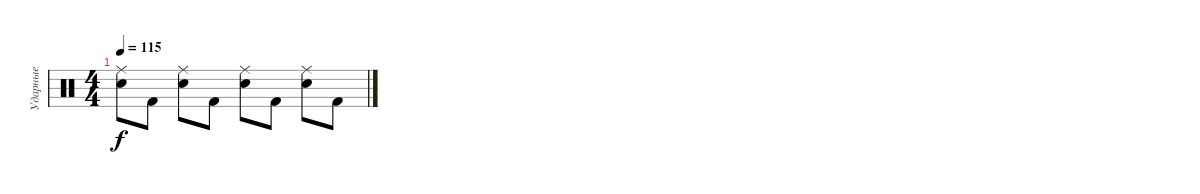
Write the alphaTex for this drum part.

\track ("Ударные" "Ударные") {instrument percussion}
\staff {score}
\articulation defaults
\ts (4 4)
\tempo 115
\clef neutral
\ks c
("Snare (hit) 2" "Ride (middle)").8{dy f} "Kick (hit) 2".8 ("Snare (hit) 2" "Ride (middle)").8 "Kick (hit) 2".8 ("Snare (hit) 2" "Ride (middle)").8 "Kick (hit) 2".8 ("Snare (hit) 2" "Ride (middle)").8 "Kick (hit) 2".8
